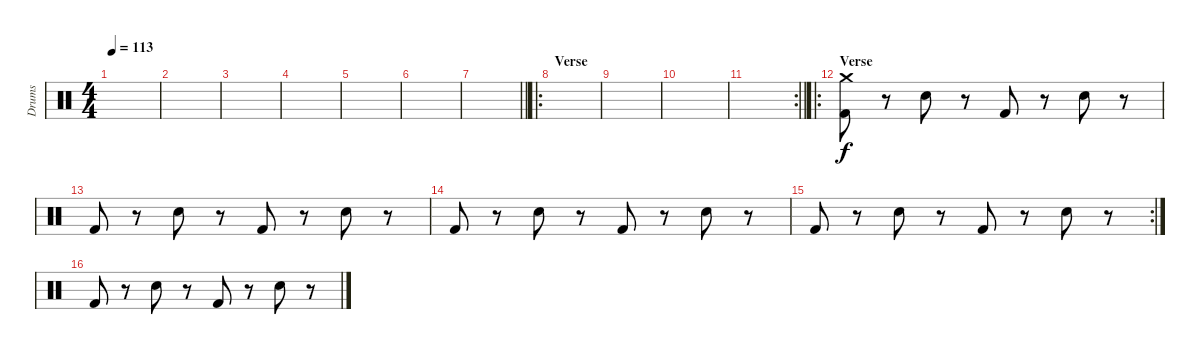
\track ("Drums" "Drums") {instrument percussion}
\staff {score}
\articulation defaults
\ts (4 4)
\tempo 113
\clef neutral
\ks c
|
|
|
|
|
|
\barLineRight lightlight
|
\ro
\section ("" "Verse")
|
|
|
\rc 2
\barLineRight lightlight
|
\ro
\section ("" "Verse")
("Crash medium (hit)" "Kick (hit) 2").8 r.8 "Electric Snare (hit)".8{dy f} r.8 "Kick (hit) 2".8 r.8 "Electric Snare (hit)".8 r.8 |
"Kick (hit) 2".8 r.8 "Electric Snare (hit)".8 r.8 "Kick (hit) 2".8 r.8 "Electric Snare (hit)".8 r.8 |
"Kick (hit) 2".8 r.8 "Electric Snare (hit)".8 r.8 "Kick (hit) 2".8 r.8 "Electric Snare (hit)".8 r.8 |
\rc 2 "Kick (hit) 2".8
r.8 "Electric Snare (hit)".8 r.8 "Kick (hit) 2".8 r.8 "Electric Snare (hit)".8 r.8 |
"Kick (hit) 2".8 r.8 "Electric Snare (hit)".8 r.8 "Kick (hit) 2".8 r.8 "Electric Snare (hit)".8 r.8
